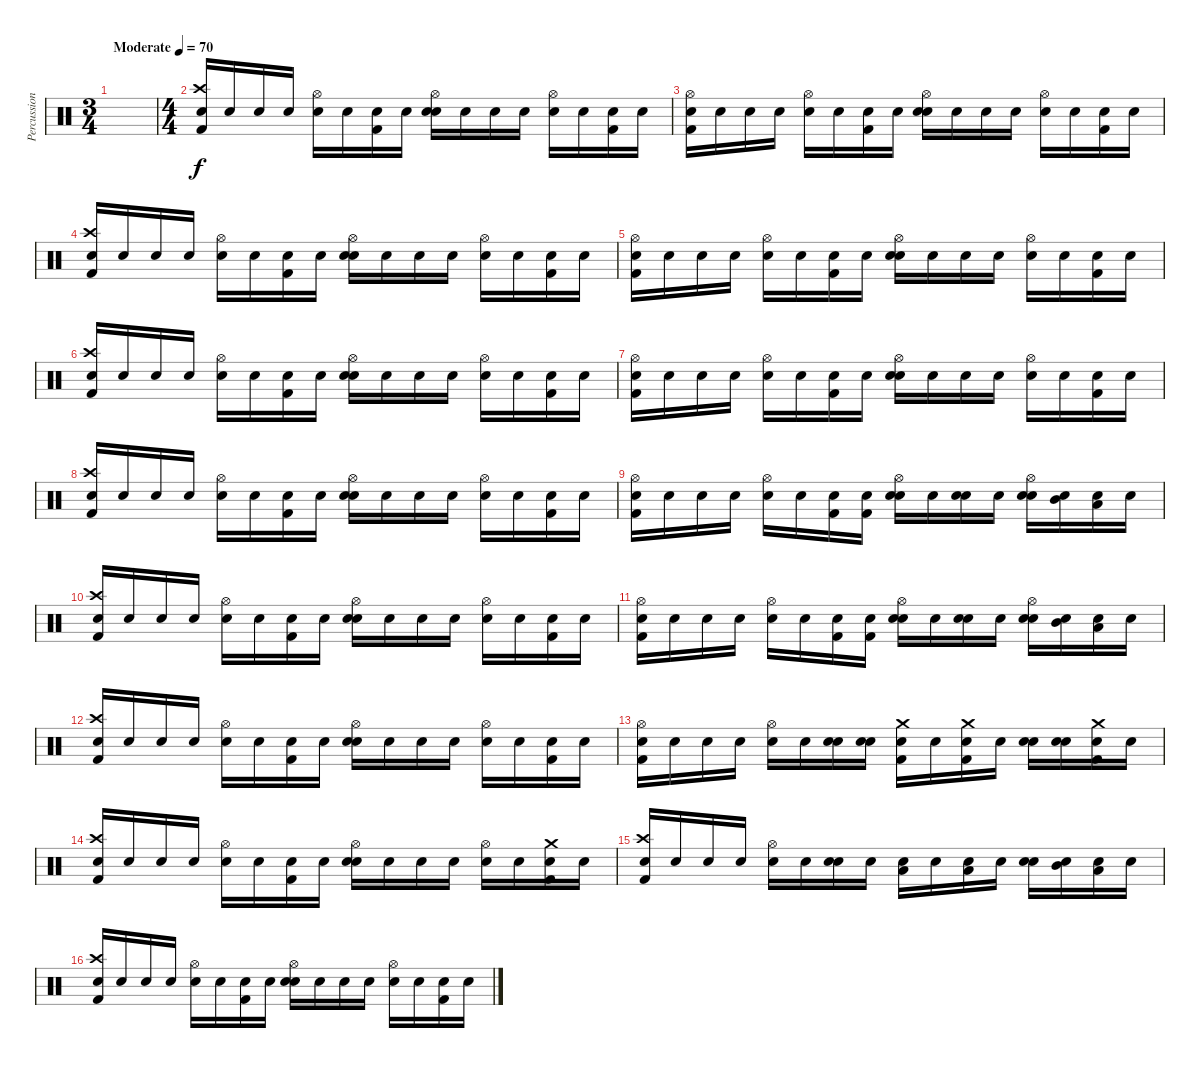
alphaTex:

\track ("Percussion" "Percussion") {instrument percussion}
\staff {score}
\articulation defaults
\ts (3 4)
\tempo (70 "Moderate")
\clef neutral
\ks c
|
\ts (4 4)
("Snare (hit)" "Crash high (hit)" "Kick (hit) 2").16 "Snare (hit)".16 "Snare (hit)".16 "Snare (hit)".16 ("Snare (hit)" "Hi-Hat (open)").16 "Snare (hit)".16 ("Snare (hit)" "Kick (hit) 2").16 "Snare (hit)".16 ("Snare (hit)" "Hi-Hat (open)" "Snare (hit) 2").16 "Snare (hit)".16 "Snare (hit)".16 "Snare (hit)".16 ("Snare (hit)" "Hi-Hat (open)").16 "Snare (hit)".16 ("Snare (hit)" "Kick (hit) 2").16 "Snare (hit)".16 |
("Snare (hit)" "Hi-Hat (open)" "Kick (hit) 2").16 "Snare (hit)".16 "Snare (hit)".16 "Snare (hit)".16 ("Snare (hit)" "Hi-Hat (open)").16 "Snare (hit)".16 ("Snare (hit)" "Kick (hit) 2").16 "Snare (hit)".16 ("Snare (hit)" "Hi-Hat (open)" "Snare (hit) 2").16 "Snare (hit)".16 "Snare (hit)".16 "Snare (hit)".16 ("Snare (hit)" "Hi-Hat (open)").16 "Snare (hit)".16 ("Snare (hit)" "Kick (hit) 2").16 "Snare (hit)".16 |
("Snare (hit)" "Crash high (hit)" "Kick (hit) 2").16 "Snare (hit)".16 "Snare (hit)".16 "Snare (hit)".16 ("Snare (hit)" "Hi-Hat (open)").16 "Snare (hit)".16 ("Snare (hit)" "Kick (hit) 2").16 "Snare (hit)".16 ("Snare (hit)" "Hi-Hat (open)" "Snare (hit) 2").16 "Snare (hit)".16 "Snare (hit)".16 "Snare (hit)".16 ("Snare (hit)" "Hi-Hat (open)").16 "Snare (hit)".16 ("Snare (hit)" "Kick (hit) 2").16 "Snare (hit)".16 |
("Snare (hit)" "Hi-Hat (open)" "Kick (hit) 2").16 "Snare (hit)".16 "Snare (hit)".16 "Snare (hit)".16 ("Snare (hit)" "Hi-Hat (open)").16 "Snare (hit)".16 ("Snare (hit)" "Kick (hit) 2").16 "Snare (hit)".16 ("Snare (hit)" "Hi-Hat (open)" "Snare (hit) 2").16 "Snare (hit)".16 "Snare (hit)".16 "Snare (hit)".16 ("Snare (hit)" "Hi-Hat (open)").16 "Snare (hit)".16 ("Snare (hit)" "Kick (hit) 2").16 "Snare (hit)".16 |
("Snare (hit)" "Crash high (hit)" "Kick (hit) 2").16 "Snare (hit)".16 "Snare (hit)".16 "Snare (hit)".16 ("Snare (hit)" "Hi-Hat (open)").16 "Snare (hit)".16 ("Snare (hit)" "Kick (hit) 2").16 "Snare (hit)".16 ("Snare (hit)" "Hi-Hat (open)" "Snare (hit) 2").16 "Snare (hit)".16 "Snare (hit)".16 "Snare (hit)".16 ("Snare (hit)" "Hi-Hat (open)").16 "Snare (hit)".16 ("Snare (hit)" "Kick (hit) 2").16 "Snare (hit)".16 |
("Snare (hit)" "Hi-Hat (open)" "Kick (hit) 2").16 "Snare (hit)".16 "Snare (hit)".16 "Snare (hit)".16 ("Snare (hit)" "Hi-Hat (open)").16 "Snare (hit)".16 ("Snare (hit)" "Kick (hit) 2").16 "Snare (hit)".16 ("Snare (hit)" "Hi-Hat (open)" "Snare (hit) 2").16 "Snare (hit)".16 "Snare (hit)".16 "Snare (hit)".16 ("Snare (hit)" "Hi-Hat (open)").16 "Snare (hit)".16 ("Snare (hit)" "Kick (hit) 2").16 "Snare (hit)".16 |
("Snare (hit)" "Crash high (hit)" "Kick (hit) 2").16 "Snare (hit)".16 "Snare (hit)".16 "Snare (hit)".16 ("Snare (hit)" "Hi-Hat (open)").16 "Snare (hit)".16 ("Snare (hit)" "Kick (hit) 2").16 "Snare (hit)".16 ("Snare (hit)" "Hi-Hat (open)" "Snare (hit) 2").16 "Snare (hit)".16 "Snare (hit)".16 "Snare (hit)".16 ("Snare (hit)" "Hi-Hat (open)").16 "Snare (hit)".16 ("Snare (hit)" "Kick (hit) 2").16 "Snare (hit)".16 |
("Snare (hit)" "Hi-Hat (open)" "Kick (hit) 2").16 "Snare (hit)".16 "Snare (hit)".16 "Snare (hit)".16 ("Snare (hit)" "Hi-Hat (open)").16 "Snare (hit)".16 ("Snare (hit)" "Kick (hit) 2").16 ("Snare (hit)" "Kick (hit) 2").16 ("Snare (hit)" "Hi-Hat (open)" "Snare (hit) 2").16 "Snare (hit)".16 ("Snare (hit)" "Snare (hit) 2").16 "Snare (hit)".16 ("Snare (hit)" "Hi-Hat (open)" "Snare (hit) 2").16 ("Snare (hit)" "Mid Tom (hit)").16 ("Snare (hit)" "Low Tom (hit)").16 "Snare (hit)".16 |
("Snare (hit)" "Crash high (hit)" "Kick (hit) 2").16 "Snare (hit)".16 "Snare (hit)".16 "Snare (hit)".16 ("Snare (hit)" "Hi-Hat (open)").16 "Snare (hit)".16 ("Snare (hit)" "Kick (hit) 2").16 "Snare (hit)".16 ("Snare (hit)" "Hi-Hat (open)" "Snare (hit) 2").16 "Snare (hit)".16 "Snare (hit)".16 "Snare (hit)".16 ("Snare (hit)" "Hi-Hat (open)").16 "Snare (hit)".16 ("Snare (hit)" "Kick (hit) 2").16 "Snare (hit)".16 |
("Snare (hit)" "Hi-Hat (open)" "Kick (hit) 2").16 "Snare (hit)".16 "Snare (hit)".16 "Snare (hit)".16 ("Snare (hit)" "Hi-Hat (open)").16 "Snare (hit)".16 ("Snare (hit)" "Kick (hit) 2").16 ("Snare (hit)" "Kick (hit) 2").16 ("Snare (hit)" "Hi-Hat (open)" "Snare (hit) 2").16 "Snare (hit)".16 ("Snare (hit)" "Snare (hit) 2").16 "Snare (hit)".16 ("Snare (hit)" "Hi-Hat (open)" "Snare (hit) 2").16 ("Snare (hit)" "Mid Tom (hit)").16 ("Snare (hit)" "Low Tom (hit)").16 "Snare (hit)".16 |
("Snare (hit)" "Crash high (hit)" "Kick (hit) 2").16 "Snare (hit)".16 "Snare (hit)".16 "Snare (hit)".16 ("Snare (hit)" "Hi-Hat (open)").16 "Snare (hit)".16 ("Snare (hit)" "Kick (hit) 2").16 "Snare (hit)".16 ("Snare (hit)" "Hi-Hat (open)" "Snare (hit) 2").16 "Snare (hit)".16 "Snare (hit)".16 "Snare (hit)".16 ("Snare (hit)" "Hi-Hat (open)").16 "Snare (hit)".16 ("Snare (hit)" "Kick (hit) 2").16 "Snare (hit)".16 |
("Snare (hit)" "Hi-Hat (open)" "Kick (hit) 2").16 "Snare (hit)".16 "Snare (hit)".16 "Snare (hit)".16 ("Snare (hit)" "Hi-Hat (open)").16 "Snare (hit)".16 ("Snare (hit)" "Snare (hit) 2").16 ("Snare (hit)" "Snare (hit) 2").16 ("Snare (hit)" "Crash medium (hit)" "Kick (hit) 2").16 "Snare (hit)".16 ("Snare (hit)" "Crash medium (hit)" "Kick (hit) 2").16 "Snare (hit)".16 ("Snare (hit)" "Snare (hit) 2").16 ("Snare (hit)" "Snare (hit) 2").16 ("Snare (hit)" "Crash medium (hit)" "Kick (hit) 2").16 "Snare (hit)".16 |
("Snare (hit)" "Crash high (hit)" "Kick (hit) 2").16 "Snare (hit)".16 "Snare (hit)".16 "Snare (hit)".16 ("Snare (hit)" "Hi-Hat (open)").16 "Snare (hit)".16 ("Snare (hit)" "Kick (hit) 2").16 "Snare (hit)".16 ("Snare (hit)" "Hi-Hat (open)" "Snare (hit) 2").16 "Snare (hit)".16 "Snare (hit)".16 "Snare (hit)".16 ("Snare (hit)" "Hi-Hat (open)").16 "Snare (hit)".16 ("Snare (hit)" "Crash medium (hit)" "Kick (hit) 2").16 "Snare (hit)".16 |
("Snare (hit)" "Crash high (hit)" "Kick (hit) 2").16 "Snare (hit)".16 "Snare (hit)".16 "Snare (hit)".16 ("Snare (hit)" "Hi-Hat (open)").16 "Snare (hit)".16 ("Snare (hit)" "Snare (hit) 2").16 "Snare (hit)".16 ("Snare (hit)" "Low Tom (hit)").16 "Snare (hit)".16 ("Snare (hit)" "Low Tom (hit)").16 "Snare (hit)".16 ("Snare (hit)" "Snare (hit) 2").16 ("Snare (hit)" "Mid Tom (hit)").16 ("Snare (hit)" "Low Tom (hit)").16 "Snare (hit)".16 |
("Snare (hit)" "Crash high (hit)" "Kick (hit) 2").16 "Snare (hit)".16 "Snare (hit)".16 "Snare (hit)".16 ("Snare (hit)" "Hi-Hat (open)").16 "Snare (hit)".16 ("Snare (hit)" "Kick (hit) 2").16 "Snare (hit)".16 ("Snare (hit)" "Hi-Hat (open)" "Snare (hit) 2").16 "Snare (hit)".16 "Snare (hit)".16 "Snare (hit)".16 ("Snare (hit)" "Hi-Hat (open)").16 "Snare (hit)".16 ("Snare (hit)" "Kick (hit) 2").16 "Snare (hit)".16
